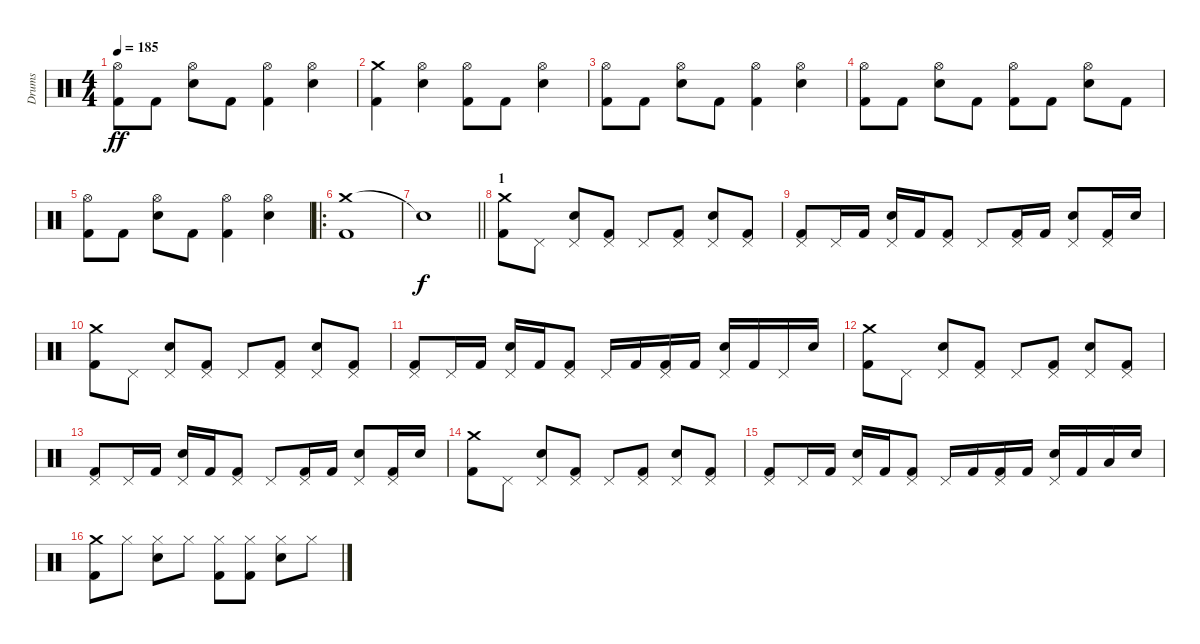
\track ("Drums" "Drums") {instrument percussion}
\staff {score}
\articulation defaults
\ts (4 4)
\tempo 185
\clef neutral
\ks c
("Hi-Hat (open)" "Kick (hit) 2").8{dy ff} "Kick (hit) 2".8 ("Hi-Hat (open)" "Electric Snare (hit)").8 "Kick (hit) 2".8 ("Hi-Hat (open)" "Kick (hit) 2").4 ("Hi-Hat (open)" "Electric Snare (hit)").4 |
("Crash medium (hit)" "Kick (hit) 2").4 ("Hi-Hat (open)" "Electric Snare (hit)").4 ("Hi-Hat (open)" "Kick (hit) 2").8 "Kick (hit) 2".8 ("Hi-Hat (open)" "Electric Snare (hit)").4 |
("Hi-Hat (open)" "Kick (hit) 2").8 "Kick (hit) 2".8 ("Hi-Hat (open)" "Electric Snare (hit)").8 "Kick (hit) 2".8 ("Hi-Hat (open)" "Kick (hit) 2").4 ("Hi-Hat (open)" "Electric Snare (hit)").4 |
("Hi-Hat (open)" "Kick (hit) 2").8 "Kick (hit) 2".8 ("Hi-Hat (open)" "Electric Snare (hit)").8 "Kick (hit) 2".8 ("Hi-Hat (open)" "Kick (hit) 2").8 "Kick (hit) 2".8 ("Hi-Hat (open)" "Electric Snare (hit)").8 "Kick (hit) 2".8 |
("Hi-Hat (open)" "Kick (hit) 2").8 "Kick (hit) 2".8 ("Hi-Hat (open)" "Electric Snare (hit)").8 "Kick (hit) 2".8 ("Hi-Hat (open)" "Kick (hit) 2").4 ("Hi-Hat (open)" "Electric Snare (hit)").4 |
\ro
("Crash medium (hit)" "Kick (hit) 2").1 |
\barLineRight lightlight "Snare (hit)"{t}.1{dy f}
|
\section ("" "1")
("Crash medium (hit)" "Kick (hit) 2").8 "Pedal Hi-Hat (hit)".8 ("Pedal Hi-Hat (hit)" "Electric Snare (hit)").8 ("Pedal Hi-Hat (hit)" "Kick (hit) 2").8 "Pedal Hi-Hat (hit)".8 ("Pedal Hi-Hat (hit)" "Kick (hit) 2").8 ("Pedal Hi-Hat (hit)" "Electric Snare (hit)").8 ("Pedal Hi-Hat (hit)" "Kick (hit) 2").8 |
("Pedal Hi-Hat (hit)" "Kick (hit) 2").8 "Pedal Hi-Hat (hit)".16 "Kick (hit) 2".16 ("Pedal Hi-Hat (hit)" "Electric Snare (hit)").16 "Kick (hit) 2".16 ("Pedal Hi-Hat (hit)" "Kick (hit) 2").8 "Pedal Hi-Hat (hit)".8 ("Pedal Hi-Hat (hit)" "Kick (hit) 2").16 "Kick (hit) 2".16 ("Pedal Hi-Hat (hit)" "Electric Snare (hit)").8 ("Pedal Hi-Hat (hit)" "Kick (hit) 2").16 "Electric Snare (hit)".16 |
("Crash medium (hit)" "Kick (hit) 2").8 "Pedal Hi-Hat (hit)".8 ("Pedal Hi-Hat (hit)" "Electric Snare (hit)").8 ("Pedal Hi-Hat (hit)" "Kick (hit) 2").8 "Pedal Hi-Hat (hit)".8 ("Pedal Hi-Hat (hit)" "Kick (hit) 2").8 ("Pedal Hi-Hat (hit)" "Electric Snare (hit)").8 ("Pedal Hi-Hat (hit)" "Kick (hit) 2").8 |
("Pedal Hi-Hat (hit)" "Kick (hit) 2").8 "Pedal Hi-Hat (hit)".16 "Kick (hit) 2".16 ("Pedal Hi-Hat (hit)" "Electric Snare (hit)").16 "Kick (hit) 2".16 ("Pedal Hi-Hat (hit)" "Kick (hit) 2").8 "Pedal Hi-Hat (hit)".16 "Kick (hit) 2".16 ("Pedal Hi-Hat (hit)" "Kick (hit) 2").16 "Kick (hit) 2".16 ("Pedal Hi-Hat (hit)" "Electric Snare (hit)").16 "Kick (hit) 2".16 "Pedal Hi-Hat (hit)".16 "Electric Snare (hit)".16 |
("Crash medium (hit)" "Kick (hit) 2").8 "Pedal Hi-Hat (hit)".8 ("Pedal Hi-Hat (hit)" "Electric Snare (hit)").8 ("Pedal Hi-Hat (hit)" "Kick (hit) 2").8 "Pedal Hi-Hat (hit)".8 ("Pedal Hi-Hat (hit)" "Kick (hit) 2").8 ("Pedal Hi-Hat (hit)" "Electric Snare (hit)").8 ("Pedal Hi-Hat (hit)" "Kick (hit) 2").8 |
("Pedal Hi-Hat (hit)" "Kick (hit) 2").8 "Pedal Hi-Hat (hit)".16 "Kick (hit) 2".16 ("Pedal Hi-Hat (hit)" "Electric Snare (hit)").16 "Kick (hit) 2".16 ("Pedal Hi-Hat (hit)" "Kick (hit) 2").8 "Pedal Hi-Hat (hit)".8 ("Pedal Hi-Hat (hit)" "Kick (hit) 2").16 "Kick (hit) 2".16 ("Pedal Hi-Hat (hit)" "Electric Snare (hit)").8 ("Pedal Hi-Hat (hit)" "Kick (hit) 2").16 "Electric Snare (hit)".16 |
("Crash medium (hit)" "Kick (hit) 2").8 "Pedal Hi-Hat (hit)".8 ("Pedal Hi-Hat (hit)" "Electric Snare (hit)").8 ("Pedal Hi-Hat (hit)" "Kick (hit) 2").8 "Pedal Hi-Hat (hit)".8 ("Pedal Hi-Hat (hit)" "Kick (hit) 2").8 ("Pedal Hi-Hat (hit)" "Electric Snare (hit)").8 ("Pedal Hi-Hat (hit)" "Kick (hit) 2").8 |
("Pedal Hi-Hat (hit)" "Kick (hit) 2").8 "Pedal Hi-Hat (hit)".16 "Kick (hit) 2".16 ("Pedal Hi-Hat (hit)" "Electric Snare (hit)").16 "Kick (hit) 2".16 ("Pedal Hi-Hat (hit)" "Kick (hit) 2").8 "Pedal Hi-Hat (hit)".16 "Kick (hit) 2".16 ("Pedal Hi-Hat (hit)" "Kick (hit) 2").16 "Kick (hit) 2".16 ("Pedal Hi-Hat (hit)" "Electric Snare (hit)").16 "Kick (hit) 2".16 "Low Tom (hit)".16 "Electric Snare (hit)".16 |
("Crash medium (hit)" "Kick (hit) 2").8 "Hi-Hat (closed)".8 ("Hi-Hat (closed)" "Electric Snare (hit)").8 "Hi-Hat (closed)".8 ("Hi-Hat (closed)" "Kick (hit) 2").8 ("Hi-Hat (closed)" "Kick (hit) 2").8 ("Hi-Hat (closed)" "Electric Snare (hit)").8 "Hi-Hat (closed)".8
